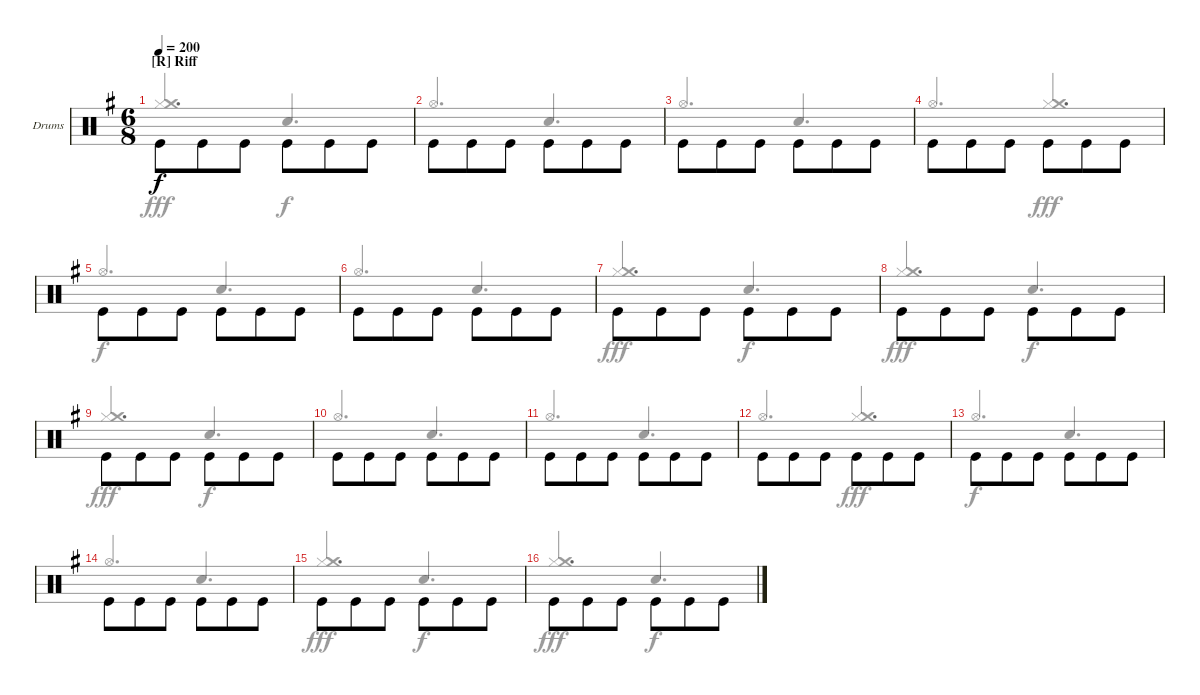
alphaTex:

\bracketExtendMode groupsimilarinstruments
\firstSystemTrackNameOrientation horizontal
\otherSystemsTrackNameOrientation horizontal
\track ("Drumkit" "Drums") {instrument percussion}
\staff {score}
\articulation defaults
\voice
\ts (6 8)
\section ("R" "Riff")
\tempo 200
\clef neutral
\ks eminor "Kick (hit)".8{dy f beam invert} "Kick (hit)".8{beam invert} "Kick (hit)".8{beam invert} "Kick (hit)".8 "Kick (hit)".8 "Kick (hit)".8{beam invert}
|
"Kick (hit)".8{beam invert} "Kick (hit)".8{beam invert} "Kick (hit)".8{beam invert} "Kick (hit)".8 "Kick (hit)".8 "Kick (hit)".8{beam invert} |
"Kick (hit)".8{beam invert} "Kick (hit)".8{beam invert} "Kick (hit)".8{beam invert} "Kick (hit)".8 "Kick (hit)".8 "Kick (hit)".8{beam invert} |
"Kick (hit)".8{beam invert} "Kick (hit)".8{beam invert} "Kick (hit)".8{beam invert} "Kick (hit)".8 "Kick (hit)".8 "Kick (hit)".8{beam invert} |
"Kick (hit)".8{beam invert} "Kick (hit)".8{beam invert} "Kick (hit)".8{beam invert} "Kick (hit)".8 "Kick (hit)".8 "Kick (hit)".8{beam invert} |
"Kick (hit)".8{beam invert} "Kick (hit)".8{beam invert} "Kick (hit)".8{beam invert} "Kick (hit)".8 "Kick (hit)".8 "Kick (hit)".8{beam invert} |
"Kick (hit)".8{beam invert} "Kick (hit)".8{beam invert} "Kick (hit)".8{beam invert} "Kick (hit)".8 "Kick (hit)".8 "Kick (hit)".8{beam invert} |
"Kick (hit)".8{beam invert} "Kick (hit)".8{beam invert} "Kick (hit)".8{beam invert} "Kick (hit)".8 "Kick (hit)".8 "Kick (hit)".8{beam invert} |
"Kick (hit)".8{beam invert} "Kick (hit)".8{beam invert} "Kick (hit)".8{beam invert} "Kick (hit)".8 "Kick (hit)".8 "Kick (hit)".8{beam invert} |
"Kick (hit)".8{beam invert} "Kick (hit)".8{beam invert} "Kick (hit)".8{beam invert} "Kick (hit)".8 "Kick (hit)".8 "Kick (hit)".8{beam invert} |
"Kick (hit)".8{beam invert} "Kick (hit)".8{beam invert} "Kick (hit)".8{beam invert} "Kick (hit)".8 "Kick (hit)".8 "Kick (hit)".8{beam invert} |
"Kick (hit)".8{beam invert} "Kick (hit)".8{beam invert} "Kick (hit)".8{beam invert} "Kick (hit)".8 "Kick (hit)".8 "Kick (hit)".8{beam invert} |
"Kick (hit)".8{beam invert} "Kick (hit)".8{beam invert} "Kick (hit)".8{beam invert} "Kick (hit)".8 "Kick (hit)".8 "Kick (hit)".8{beam invert} |
"Kick (hit)".8{beam invert} "Kick (hit)".8{beam invert} "Kick (hit)".8{beam invert} "Kick (hit)".8 "Kick (hit)".8 "Kick (hit)".8{beam invert} |
"Kick (hit)".8{beam invert} "Kick (hit)".8{beam invert} "Kick (hit)".8{beam invert} "Kick (hit)".8 "Kick (hit)".8 "Kick (hit)".8{beam invert} |
"Kick (hit)".8{beam invert} "Kick (hit)".8{beam invert} "Kick (hit)".8{beam invert} "Kick (hit)".8 "Kick (hit)".8 "Kick (hit)".8{beam invert}
\voice
\clef neutral
\ottava regular
\simile none
\ks eminor
("Hi-Hat (closed)" "Crash medium (hit)").4{d dy fff beam invert} "Snare (hit) 2".4{d dy f beam invert} |
"Hi-Hat (open)".4{d beam invert} "Snare (hit) 2".4{d beam invert} |
"Hi-Hat (open)".4{d beam invert} "Snare (hit) 2".4{d beam invert} |
"Hi-Hat (open)".4{d beam invert} ("Hi-Hat (closed)" "Crash medium (hit)").4{d dy fff beam invert} |
"Hi-Hat (open)".4{d dy f beam invert} "Snare (hit) 2".4{d beam invert} |
"Hi-Hat (open)".4{d beam invert} "Snare (hit) 2".4{d beam invert} |
("Hi-Hat (closed)" "Crash medium (hit)").4{d dy fff beam invert} "Snare (hit) 2".4{d dy f beam invert} |
("Hi-Hat (closed)" "Crash medium (hit)").4{d dy fff beam invert} "Snare (hit) 2".4{d dy f beam invert} |
("Hi-Hat (closed)" "Crash medium (hit)").4{d dy fff beam invert} "Snare (hit) 2".4{d dy f beam invert} |
"Hi-Hat (open)".4{d beam invert} "Snare (hit) 2".4{d beam invert} |
"Hi-Hat (open)".4{d beam invert} "Snare (hit) 2".4{d beam invert} |
"Hi-Hat (open)".4{d beam invert} ("Hi-Hat (closed)" "Crash medium (hit)").4{d dy fff beam invert} |
"Hi-Hat (open)".4{d dy f beam invert} "Snare (hit) 2".4{d beam invert} |
"Hi-Hat (open)".4{d beam invert} "Snare (hit) 2".4{d beam invert} |
("Hi-Hat (closed)" "Crash medium (hit)").4{d dy fff beam invert} "Snare (hit) 2".4{d dy f beam invert} |
("Hi-Hat (closed)" "Crash medium (hit)").4{d dy fff beam invert} "Snare (hit) 2".4{d dy f beam invert}
